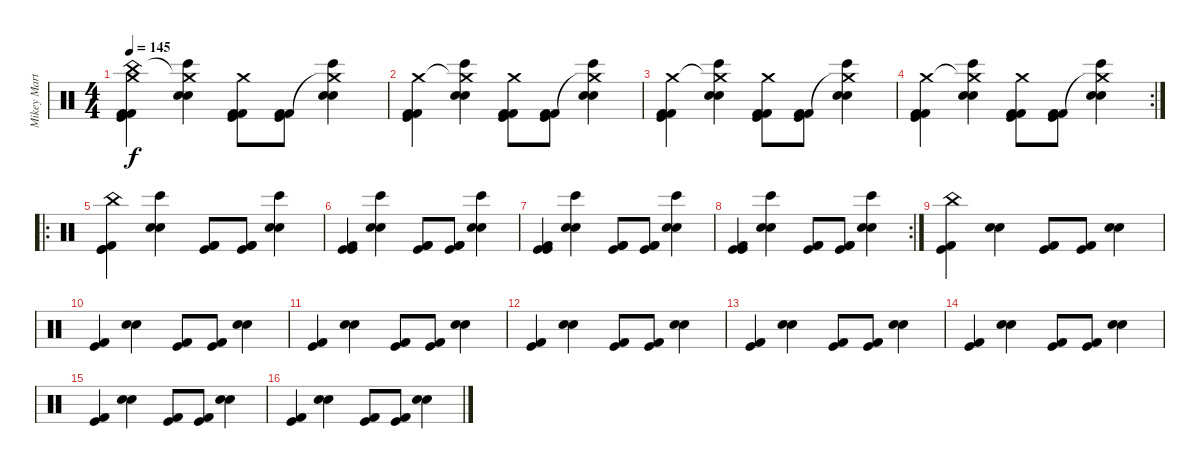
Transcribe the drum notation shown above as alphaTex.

\track ("Mikey Martin" "Mikey Mart") {instrument percussion}
\staff {score}
\articulation defaults
\ts (4 4)
\tempo 145
\clef neutral
\ks c
("China (hit)" "Crash medium (hit)" "Kick (hit)" "Kick (hit) 2" "Kick (hit) 2").4{dy f} ("Crash medium (hit)"{t} "Bongo High (hit)" "Snare (hit) 2" "Electric Snare (hit)").4 ("Crash medium (hit)" "Kick (hit)" "Kick (hit) 2" "Kick (hit) 2").8 ("Kick (hit)" "Kick (hit) 2" "Kick (hit) 2").8 ("Crash medium (hit)"{t} "Bongo High (hit)" "Snare (hit) 2" "Electric Snare (hit)").4 |
("Crash medium (hit)" "Kick (hit)" "Kick (hit) 2" "Kick (hit) 2").4 ("Crash medium (hit)"{t} "Bongo High (hit)" "Snare (hit) 2" "Electric Snare (hit)").4 ("Crash medium (hit)" "Kick (hit)" "Kick (hit) 2" "Kick (hit) 2").8 ("Kick (hit)" "Kick (hit) 2" "Kick (hit) 2").8 ("Crash medium (hit)"{t} "Bongo High (hit)" "Snare (hit) 2" "Electric Snare (hit)").4 |
("Crash medium (hit)" "Kick (hit)" "Kick (hit) 2" "Kick (hit) 2").4 ("Crash medium (hit)"{t} "Bongo High (hit)" "Snare (hit) 2" "Electric Snare (hit)").4 ("Crash medium (hit)" "Kick (hit)" "Kick (hit) 2" "Kick (hit) 2").8 ("Kick (hit)" "Kick (hit) 2" "Kick (hit) 2").8 ("Crash medium (hit)"{t} "Bongo High (hit)" "Snare (hit) 2" "Electric Snare (hit)").4 |
\rc 2
("Crash medium (hit)" "Kick (hit)" "Kick (hit) 2" "Kick (hit) 2").4 ("Crash medium (hit)"{t} "Bongo High (hit)" "Snare (hit) 2" "Electric Snare (hit)").4 ("Crash medium (hit)" "Kick (hit)" "Kick (hit) 2" "Kick (hit) 2").8 ("Kick (hit)" "Kick (hit) 2" "Kick (hit) 2").8 ("Crash medium (hit)"{t} "Bongo High (hit)" "Snare (hit) 2" "Electric Snare (hit)").4 |
\ro
("China (hit)" "Kick (hit)" "Kick (hit)" "Kick (hit) 2").4 ("Bongo High (hit)" "Snare (hit) 2" "Electric Snare (hit)").4 ("Kick (hit) 2" "Kick (hit)" "Kick (hit) 2").8 ("Kick (hit) 2" "Kick (hit)" "Kick (hit) 2").8 ("Bongo High (hit)" "Snare (hit) 2" "Electric Snare (hit)").4 |
("Kick (hit)" "Kick (hit)" "Kick (hit) 2").4 ("Bongo High (hit)" "Snare (hit) 2" "Electric Snare (hit)").4 ("Kick (hit) 2" "Kick (hit)" "Kick (hit) 2").8 ("Kick (hit) 2" "Kick (hit)" "Kick (hit) 2").8 ("Bongo High (hit)" "Snare (hit) 2" "Electric Snare (hit)").4 |
("Kick (hit)" "Kick (hit)" "Kick (hit) 2").4 ("Bongo High (hit)" "Snare (hit) 2" "Electric Snare (hit)").4 ("Kick (hit) 2" "Kick (hit)" "Kick (hit) 2").8 ("Kick (hit) 2" "Kick (hit)" "Kick (hit) 2").8 ("Bongo High (hit)" "Snare (hit) 2" "Electric Snare (hit)").4 |
\rc 2
("Kick (hit)" "Kick (hit)" "Kick (hit) 2").4 ("Bongo High (hit)" "Snare (hit) 2" "Electric Snare (hit)").4 ("Kick (hit) 2" "Kick (hit)" "Kick (hit) 2").8 ("Kick (hit) 2" "Kick (hit)" "Kick (hit) 2").8 ("Bongo High (hit)" "Snare (hit) 2" "Electric Snare (hit)").4 |
("China (hit)" "Kick (hit)" "Kick (hit) 2").4 ("Snare (hit) 2" "Electric Snare (hit)").4 ("Kick (hit)" "Kick (hit) 2").8 ("Kick (hit)" "Kick (hit) 2").8 ("Snare (hit) 2" "Electric Snare (hit)").4 |
("Kick (hit)" "Kick (hit) 2").4 ("Snare (hit) 2" "Electric Snare (hit)").4 ("Kick (hit)" "Kick (hit) 2").8 ("Kick (hit)" "Kick (hit) 2").8 ("Snare (hit) 2" "Electric Snare (hit)").4 |
("Kick (hit)" "Kick (hit) 2").4 ("Snare (hit) 2" "Electric Snare (hit)").4 ("Kick (hit)" "Kick (hit) 2").8 ("Kick (hit)" "Kick (hit) 2").8 ("Snare (hit) 2" "Electric Snare (hit)").4 |
("Kick (hit)" "Kick (hit) 2").4 ("Snare (hit) 2" "Electric Snare (hit)").4 ("Kick (hit)" "Kick (hit) 2").8 ("Kick (hit)" "Kick (hit) 2").8 ("Snare (hit) 2" "Electric Snare (hit)").4 |
("Kick (hit)" "Kick (hit) 2").4 ("Snare (hit) 2" "Electric Snare (hit)").4 ("Kick (hit)" "Kick (hit) 2").8 ("Kick (hit)" "Kick (hit) 2").8 ("Snare (hit) 2" "Electric Snare (hit)").4 |
("Kick (hit)" "Kick (hit) 2").4 ("Snare (hit) 2" "Electric Snare (hit)").4 ("Kick (hit)" "Kick (hit) 2").8 ("Kick (hit)" "Kick (hit) 2").8 ("Snare (hit) 2" "Electric Snare (hit)").4 |
("Kick (hit)" "Kick (hit) 2").4 ("Snare (hit) 2" "Electric Snare (hit)").4 ("Kick (hit)" "Kick (hit) 2").8 ("Kick (hit)" "Kick (hit) 2").8 ("Snare (hit) 2" "Electric Snare (hit)").4 |
("Kick (hit)" "Kick (hit) 2").4 ("Snare (hit) 2" "Electric Snare (hit)").4 ("Kick (hit)" "Kick (hit) 2").8 ("Kick (hit)" "Kick (hit) 2").8 ("Snare (hit) 2" "Electric Snare (hit)").4
